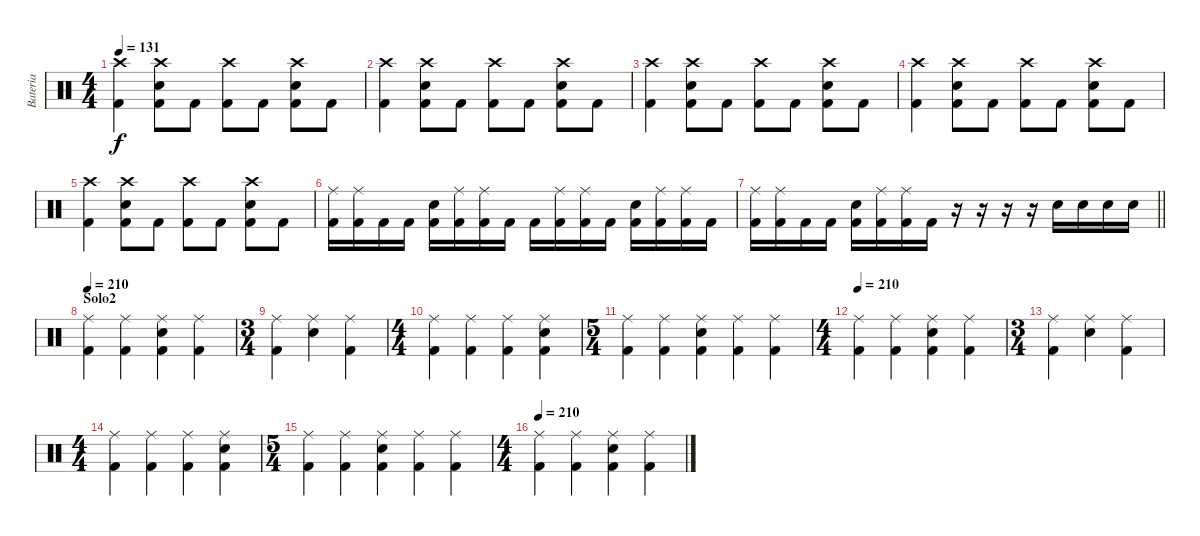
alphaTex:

\track ("Bateria" "Bateria") {instrument percussion}
\staff {score}
\articulation defaults
\ts (4 4)
\tempo 131
\clef neutral
\ks c
("Crash high (hit)" "Kick (hit) 2").4{dy f} ("Crash high (hit)" "Electric Snare (hit)" "Kick (hit) 2").8 "Kick (hit) 2".8 ("Crash high (hit)" "Kick (hit) 2").8 "Kick (hit) 2".8 ("Crash high (hit)" "Electric Snare (hit)" "Kick (hit) 2").8 "Kick (hit) 2".8 |
("Crash high (hit)" "Kick (hit) 2").4 ("Crash high (hit)" "Electric Snare (hit)" "Kick (hit) 2").8 "Kick (hit) 2".8 ("Crash high (hit)" "Kick (hit) 2").8 "Kick (hit) 2".8 ("Crash high (hit)" "Electric Snare (hit)" "Kick (hit) 2").8 "Kick (hit) 2".8 |
("Crash high (hit)" "Kick (hit) 2").4 ("Crash high (hit)" "Electric Snare (hit)" "Kick (hit) 2").8 "Kick (hit) 2".8 ("Crash high (hit)" "Kick (hit) 2").8 "Kick (hit) 2".8 ("Crash high (hit)" "Electric Snare (hit)" "Kick (hit) 2").8 "Kick (hit) 2".8 |
("Crash high (hit)" "Kick (hit) 2").4 ("Crash high (hit)" "Electric Snare (hit)" "Kick (hit) 2").8 "Kick (hit) 2".8 ("Crash high (hit)" "Kick (hit) 2").8 "Kick (hit) 2".8 ("Crash high (hit)" "Electric Snare (hit)" "Kick (hit) 2").8 "Kick (hit) 2".8 |
("Crash high (hit)" "Kick (hit) 2").4 ("Crash high (hit)" "Electric Snare (hit)" "Kick (hit) 2").8 "Kick (hit) 2".8 ("Crash high (hit)" "Kick (hit) 2").8 "Kick (hit) 2".8 ("Crash high (hit)" "Electric Snare (hit)" "Kick (hit) 2").8 "Kick (hit) 2".8 |
("Ride (middle)" "Kick (hit) 2").16 ("Ride (middle)" "Kick (hit) 2").16 "Kick (hit) 2".16 "Kick (hit) 2".16 ("Electric Snare (hit)" "Kick (hit) 2").16 ("Ride (middle)" "Kick (hit) 2").16 ("Ride (middle)" "Kick (hit) 2").16 "Kick (hit) 2".16 "Kick (hit) 2".16 ("Ride (middle)" "Kick (hit) 2").16 ("Ride (middle)" "Kick (hit) 2").16 "Kick (hit) 2".16 ("Electric Snare (hit)" "Kick (hit) 2").16 ("Ride (middle)" "Kick (hit) 2").16 ("Ride (middle)" "Kick (hit) 2").16 "Kick (hit) 2".16 |
\barLineRight lightlight
("Ride (middle)" "Kick (hit) 2").16 ("Ride (middle)" "Kick (hit) 2").16 "Kick (hit) 2".16 "Kick (hit) 2".16 ("Electric Snare (hit)" "Kick (hit) 2").16 ("Ride (middle)" "Kick (hit) 2").16 ("Ride (middle)" "Kick (hit) 2").16 "Kick (hit) 2".16 r.16 r.16 r.16 r.16 "Electric Snare (hit)".16 "Electric Snare (hit)".16 "Electric Snare (hit)".16 "Electric Snare (hit)".16 |
\section ("" "Solo2")
\tempo 210
("Ride (middle)" "Kick (hit) 2").4 ("Ride (middle)" "Kick (hit) 2").4 ("Ride (middle)" "Kick (hit) 2" "Electric Snare (hit)").4 ("Ride (middle)" "Kick (hit) 2").4 |
\ts (3 4)
("Ride (middle)" "Kick (hit) 2").4 ("Ride (middle)" "Electric Snare (hit)").4 ("Ride (middle)" "Kick (hit) 2").4 |
\ts (4 4)
("Ride (middle)" "Kick (hit) 2").4 ("Ride (middle)" "Kick (hit) 2").4 ("Ride (middle)" "Kick (hit) 2").4 ("Ride (middle)" "Electric Snare (hit)" "Kick (hit) 2").4 |
\ts (5 4)
("Ride (middle)" "Kick (hit) 2").4 ("Ride (middle)" "Kick (hit) 2").4 ("Ride (middle)" "Electric Snare (hit)" "Kick (hit) 2").4 ("Ride (middle)" "Kick (hit) 2").4 ("Ride (middle)" "Kick (hit) 2").4 |
\ts (4 4)
\tempo 210
("Ride (middle)" "Kick (hit) 2").4 ("Ride (middle)" "Kick (hit) 2").4 ("Ride (middle)" "Kick (hit) 2" "Electric Snare (hit)").4 ("Ride (middle)" "Kick (hit) 2").4 |
\ts (3 4)
("Ride (middle)" "Kick (hit) 2").4 ("Ride (middle)" "Electric Snare (hit)").4 ("Ride (middle)" "Kick (hit) 2").4 |
\ts (4 4)
("Ride (middle)" "Kick (hit) 2").4 ("Ride (middle)" "Kick (hit) 2").4 ("Ride (middle)" "Kick (hit) 2").4 ("Ride (middle)" "Electric Snare (hit)" "Kick (hit) 2").4 |
\ts (5 4)
("Ride (middle)" "Kick (hit) 2").4 ("Ride (middle)" "Kick (hit) 2").4 ("Ride (middle)" "Electric Snare (hit)" "Kick (hit) 2").4 ("Ride (middle)" "Kick (hit) 2").4 ("Ride (middle)" "Kick (hit) 2").4 |
\ts (4 4)
\tempo 210
("Ride (middle)" "Kick (hit) 2").4 ("Ride (middle)" "Kick (hit) 2").4 ("Ride (middle)" "Kick (hit) 2" "Electric Snare (hit)").4 ("Ride (middle)" "Kick (hit) 2").4
